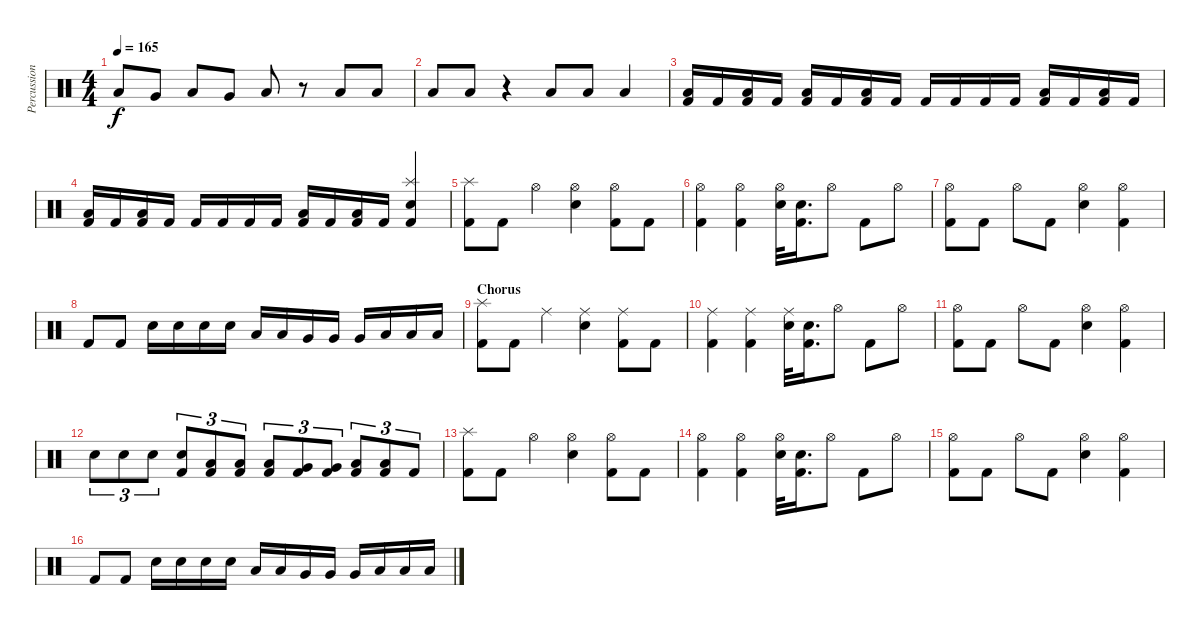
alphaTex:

\track ("Percussions" "Percussion") {instrument percussion}
\staff {score}
\articulation defaults
\ts (4 4)
\tempo 165
\clef neutral
\ks c "Low Floor Tom (hit)".8{dy f} "Very Low Tom (hit)".8 "Low Floor Tom (hit)".8 "Very Low Tom (hit)".8 "Low Floor Tom (hit)".8
r.8 "Low Floor Tom (hit)".8 "Low Floor Tom (hit)".8 |
"Low Floor Tom (hit)".8 "Low Floor Tom (hit)".8 r.4 "Low Floor Tom (hit)".8 "Low Floor Tom (hit)".8 "Low Floor Tom (hit)".4 |
("Low Floor Tom (hit)" "Kick (hit) 2").16 "Kick (hit) 2".16 ("Low Floor Tom (hit)" "Kick (hit) 2").16 "Kick (hit) 2".16 ("Low Floor Tom (hit)" "Kick (hit) 2").16 "Kick (hit) 2".16 ("Low Floor Tom (hit)" "Kick (hit) 2").16 "Kick (hit) 2".16 "Kick (hit) 2".16 "Kick (hit) 2".16 "Kick (hit) 2".16 "Kick (hit) 2".16 ("Low Floor Tom (hit)" "Kick (hit) 2").16 "Kick (hit) 2".16 ("Low Floor Tom (hit)" "Kick (hit) 2").16 "Kick (hit) 2".16 |
("Low Floor Tom (hit)" "Kick (hit) 2").16 "Kick (hit) 2".16 ("Low Floor Tom (hit)" "Kick (hit) 2").16 "Kick (hit) 2".16 "Kick (hit) 2".16 "Kick (hit) 2".16 "Kick (hit) 2".16 "Kick (hit) 2".16 ("Low Floor Tom (hit)" "Kick (hit) 2").16 "Kick (hit) 2".16 ("Low Floor Tom (hit)" "Kick (hit) 2").16 "Kick (hit) 2".16 ("Splash (hit)" "Electric Snare (hit)" "Kick (hit) 2").4 |
("Splash (hit)" "Kick (hit) 2").8 "Kick (hit) 2".8 "Hi-Hat (open)".4 ("Hi-Hat (open)" "Electric Snare (hit)").4 ("Hi-Hat (open)" "Kick (hit) 2").8 "Kick (hit) 2".8 |
("Hi-Hat (open)" "Kick (hit) 2").4 ("Hi-Hat (open)" "Kick (hit) 2").4 ("Hi-Hat (open)" "Electric Snare (hit)").32 ("Electric Snare (hit)" "Kick (hit) 2").16{d} "Hi-Hat (open)".8 "Kick (hit) 2".8 "Hi-Hat (open)".8 |
("Hi-Hat (open)" "Kick (hit) 2").8 "Kick (hit) 2".8 "Hi-Hat (open)".8 "Kick (hit) 2".8 ("Hi-Hat (open)" "Electric Snare (hit)").4 ("Hi-Hat (open)" "Kick (hit) 2").4 |
"Kick (hit) 2".8 "Kick (hit) 2".8 "Electric Snare (hit)".16 "Electric Snare (hit)".16 "Electric Snare (hit)".16 "Electric Snare (hit)".16 "Low Tom (hit)".16 "Low Tom (hit)".16 "Very Low Tom (hit)".16 "Very Low Tom (hit)".16 "Very Low Tom (hit)".16 "Low Floor Tom (hit)".16 "Low Floor Tom (hit)".16 "Low Floor Tom (hit)".16 |
\section ("" "Chorus")
("Splash (hit)" "Kick (hit) 2").8 "Kick (hit) 2".8 "Ride (middle)".4 ("Ride (middle)" "Electric Snare (hit)").4 ("Ride (middle)" "Kick (hit) 2").8 "Kick (hit) 2".8 |
("Ride (middle)" "Kick (hit) 2").4 ("Ride (middle)" "Kick (hit) 2").4 ("Ride (middle)" "Electric Snare (hit)").32 ("Electric Snare (hit)" "Kick (hit) 2").16{d} "Hi-Hat (open)".8 "Kick (hit) 2".8 "Hi-Hat (open)".8 |
("Hi-Hat (open)" "Kick (hit) 2").8 "Kick (hit) 2".8 "Hi-Hat (open)".8 "Kick (hit) 2".8 ("Hi-Hat (open)" "Electric Snare (hit)").4 ("Hi-Hat (open)" "Kick (hit) 2").4 |
"Electric Snare (hit)".8{tu (3 2)} "Electric Snare (hit)".8{tu (3 2)} "Electric Snare (hit)".8{tu (3 2)} ("Electric Snare (hit)" "Kick (hit) 2").8{tu (3 2)} ("Low Tom (hit)" "Kick (hit) 2").8{tu (3 2)} ("Low Tom (hit)" "Kick (hit) 2").8{tu (3 2)} ("Low Tom (hit)" "Kick (hit) 2").8{tu (3 2)} ("Very Low Tom (hit)" "Kick (hit) 2").8{tu (3 2)} ("Very Low Tom (hit)" "Kick (hit) 2").8{tu (3 2)} ("Low Floor Tom (hit)" "Kick (hit) 2").8{tu (3 2)} ("Low Floor Tom (hit)" "Kick (hit) 2").8{tu (3 2)} "Kick (hit) 2".8{tu (3 2)} |
("Splash (hit)" "Kick (hit) 2").8 "Kick (hit) 2".8 "Hi-Hat (open)".4 ("Hi-Hat (open)" "Electric Snare (hit)").4 ("Hi-Hat (open)" "Kick (hit) 2").8 "Kick (hit) 2".8 |
("Hi-Hat (open)" "Kick (hit) 2").4 ("Hi-Hat (open)" "Kick (hit) 2").4 ("Hi-Hat (open)" "Electric Snare (hit)").32 ("Electric Snare (hit)" "Kick (hit) 2").16{d} "Hi-Hat (open)".8 "Kick (hit) 2".8 "Hi-Hat (open)".8 |
("Hi-Hat (open)" "Kick (hit) 2").8 "Kick (hit) 2".8 "Hi-Hat (open)".8 "Kick (hit) 2".8 ("Hi-Hat (open)" "Electric Snare (hit)").4 ("Hi-Hat (open)" "Kick (hit) 2").4 |
"Kick (hit) 2".8 "Kick (hit) 2".8 "Electric Snare (hit)".16 "Electric Snare (hit)".16 "Electric Snare (hit)".16 "Electric Snare (hit)".16 "Low Tom (hit)".16 "Low Tom (hit)".16 "Very Low Tom (hit)".16 "Very Low Tom (hit)".16 "Very Low Tom (hit)".16 "Low Floor Tom (hit)".16 "Low Floor Tom (hit)".16 "Low Floor Tom (hit)".16
